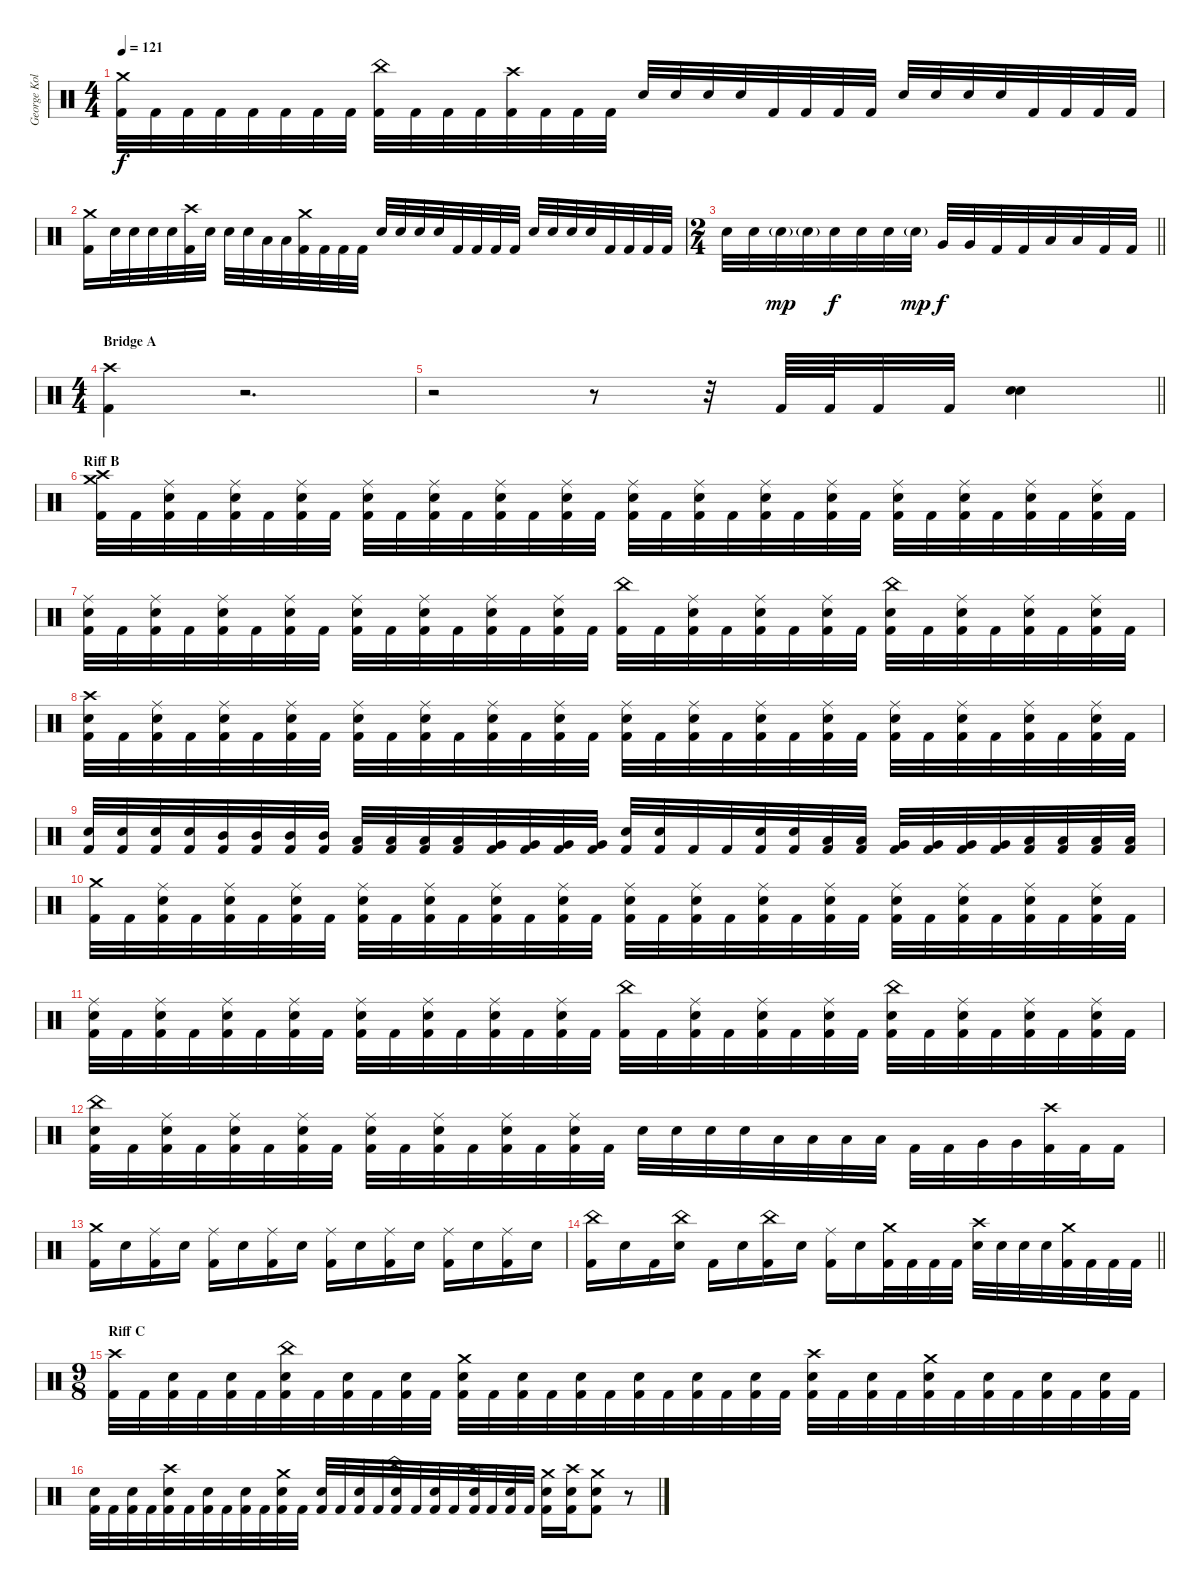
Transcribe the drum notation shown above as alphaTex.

\track ("George Kollias" "George Kol") {instrument percussion}
\staff {score}
\articulation defaults
\ts (4 4)
\tempo 121
\clef neutral
\ks c
("Crash medium (hit)" "Kick (hit) 2").32{dy f} "Kick (hit) 2".32 "Kick (hit) 2".32 "Kick (hit) 2".32 "Kick (hit) 2".32 "Kick (hit) 2".32 "Kick (hit) 2".32 "Kick (hit) 2".32 ("China (hit)" "Kick (hit) 2").32 "Kick (hit) 2".32 "Kick (hit) 2".32 "Kick (hit) 2".32 ("Crash high (hit)" "Kick (hit) 2").32 "Kick (hit) 2".32 "Kick (hit) 2".32 "Kick (hit) 2".32 "Electric Snare (hit)".32 "Electric Snare (hit)".32 "Electric Snare (hit)".32 "Electric Snare (hit)".32 "Kick (hit) 2".32 "Kick (hit) 2".32 "Kick (hit) 2".32 "Kick (hit) 2".32 "Electric Snare (hit)".32 "Electric Snare (hit)".32 "Electric Snare (hit)".32 "Electric Snare (hit)".32 "Kick (hit) 2".32 "Kick (hit) 2".32 "Kick (hit) 2".32 "Kick (hit) 2".32 |
("Crash medium (hit)" "Kick (hit) 2").16 "Electric Snare (hit)".32 "Electric Snare (hit)".32 "Electric Snare (hit)".32 "Electric Snare (hit)".32 ("Crash high (hit)" "Kick (hit) 2").32 "Electric Snare (hit)".32 "Electric Snare (hit)".32 "Electric Snare (hit)".32 "Low Floor Tom (hit)".32 "Low Floor Tom (hit)".32 ("Crash medium (hit)" "Kick (hit) 2").32 "Kick (hit) 2".32 "Kick (hit) 2".32 "Kick (hit) 2".32 "Electric Snare (hit)".32 "Electric Snare (hit)".32 "Electric Snare (hit)".32 "Electric Snare (hit)".32 "Kick (hit) 2".32 "Kick (hit) 2".32 "Kick (hit) 2".32 "Kick (hit) 2".32 "Electric Snare (hit)".32 "Electric Snare (hit)".32 "Electric Snare (hit)".32 "Electric Snare (hit)".32 "Kick (hit) 2".32 "Kick (hit) 2".32 "Kick (hit) 2".32 "Kick (hit) 2".32 |
\ts (2 4)
\barLineRight lightlight "Electric Snare (hit)".32 "Electric Snare (hit)".32 "Electric Snare (hit)"{g}.32{dy mp} "Electric Snare (hit)"{g}.32 "Electric Snare (hit)".32{dy f} "Electric Snare (hit)".32 "Electric Snare (hit)".32 "Electric Snare (hit)"{g}.32{dy mp} "Very Low Tom (hit)".32{dy f} "Very Low Tom (hit)".32 "Kick (hit) 2".32 "Kick (hit) 2".32 "Low Floor Tom (hit)".32 "Low Floor Tom (hit)".32 "Kick (hit) 2".32 "Kick (hit) 2".32
|
\ts (4 4)
\section ("" "Bridge A")
("Crash high (hit)" "Kick (hit) 2").4 r.2{d} |
\barLineRight lightlight
r.2 r.8 r.32 "Kick (hit) 2".64 "Kick (hit) 2".64 "Kick (hit) 2".32 "Kick (hit) 2".32 ("Electric Snare (hit)" "Electric Snare (hit)").4 |
\section ("" "Riff B")
("Crash medium (hit)" "Crash high (hit)" "Kick (hit) 2").32 "Kick (hit) 2".32 ("Ride (middle)" "Electric Snare (hit)" "Kick (hit) 2").32 "Kick (hit) 2".32 ("Ride (middle)" "Electric Snare (hit)" "Kick (hit) 2").32 "Kick (hit) 2".32 ("Ride (middle)" "Electric Snare (hit)" "Kick (hit) 2").32 "Kick (hit) 2".32 ("Ride (middle)" "Electric Snare (hit)" "Kick (hit) 2").32 "Kick (hit) 2".32 ("Ride (middle)" "Electric Snare (hit)" "Kick (hit) 2").32 "Kick (hit) 2".32 ("Ride (middle)" "Electric Snare (hit)" "Kick (hit) 2").32 "Kick (hit) 2".32 ("Ride (middle)" "Electric Snare (hit)" "Kick (hit) 2").32 "Kick (hit) 2".32 ("Ride (middle)" "Electric Snare (hit)" "Kick (hit) 2").32 "Kick (hit) 2".32 ("Ride (middle)" "Electric Snare (hit)" "Kick (hit) 2").32 "Kick (hit) 2".32 ("Ride (middle)" "Electric Snare (hit)" "Kick (hit) 2").32 "Kick (hit) 2".32 ("Ride (middle)" "Electric Snare (hit)" "Kick (hit) 2").32 "Kick (hit) 2".32 ("Ride (middle)" "Electric Snare (hit)" "Kick (hit) 2").32 "Kick (hit) 2".32 ("Ride (middle)" "Electric Snare (hit)" "Kick (hit) 2").32 "Kick (hit) 2".32 ("Ride (middle)" "Electric Snare (hit)" "Kick (hit) 2").32 "Kick (hit) 2".32 ("Ride (middle)" "Electric Snare (hit)" "Kick (hit) 2").32 "Kick (hit) 2".32 |
("Ride (middle)" "Electric Snare (hit)" "Kick (hit) 2").32 "Kick (hit) 2".32 ("Ride (middle)" "Electric Snare (hit)" "Kick (hit) 2").32 "Kick (hit) 2".32 ("Ride (middle)" "Electric Snare (hit)" "Kick (hit) 2").32 "Kick (hit) 2".32 ("Ride (middle)" "Electric Snare (hit)" "Kick (hit) 2").32 "Kick (hit) 2".32 ("Ride (middle)" "Electric Snare (hit)" "Kick (hit) 2").32 "Kick (hit) 2".32 ("Ride (middle)" "Electric Snare (hit)" "Kick (hit) 2").32 "Kick (hit) 2".32 ("Ride (middle)" "Electric Snare (hit)" "Kick (hit) 2").32 "Kick (hit) 2".32 ("Ride (middle)" "Electric Snare (hit)" "Kick (hit) 2").32 "Kick (hit) 2".32 ("China (hit)" "Kick (hit) 2").32 "Kick (hit) 2".32 ("Ride (middle)" "Electric Snare (hit)" "Kick (hit) 2").32 "Kick (hit) 2".32 ("Ride (middle)" "Electric Snare (hit)" "Kick (hit) 2").32 "Kick (hit) 2".32 ("Ride (middle)" "Electric Snare (hit)" "Kick (hit) 2").32 "Kick (hit) 2".32 ("China (hit)" "Electric Snare (hit)" "Kick (hit) 2").32 "Kick (hit) 2".32 ("Ride (middle)" "Electric Snare (hit)" "Kick (hit) 2").32 "Kick (hit) 2".32 ("Ride (middle)" "Electric Snare (hit)" "Kick (hit) 2").32 "Kick (hit) 2".32 ("Ride (middle)" "Electric Snare (hit)" "Kick (hit) 2").32 "Kick (hit) 2".32 |
("Crash high (hit)" "Electric Snare (hit)" "Kick (hit) 2").32 "Kick (hit) 2".32 ("Ride (middle)" "Electric Snare (hit)" "Kick (hit) 2").32 "Kick (hit) 2".32 ("Ride (middle)" "Electric Snare (hit)" "Kick (hit) 2").32 "Kick (hit) 2".32 ("Ride (middle)" "Electric Snare (hit)" "Kick (hit) 2").32 "Kick (hit) 2".32 ("Ride (middle)" "Electric Snare (hit)" "Kick (hit) 2").32 "Kick (hit) 2".32 ("Ride (middle)" "Electric Snare (hit)" "Kick (hit) 2").32 "Kick (hit) 2".32 ("Ride (middle)" "Electric Snare (hit)" "Kick (hit) 2").32 "Kick (hit) 2".32 ("Ride (middle)" "Electric Snare (hit)" "Kick (hit) 2").32 "Kick (hit) 2".32 ("Ride (middle)" "Electric Snare (hit)" "Kick (hit) 2").32 "Kick (hit) 2".32 ("Ride (middle)" "Electric Snare (hit)" "Kick (hit) 2").32 "Kick (hit) 2".32 ("Ride (middle)" "Electric Snare (hit)" "Kick (hit) 2").32 "Kick (hit) 2".32 ("Ride (middle)" "Electric Snare (hit)" "Kick (hit) 2").32 "Kick (hit) 2".32 ("Ride (middle)" "Electric Snare (hit)" "Kick (hit) 2").32 "Kick (hit) 2".32 ("Ride (middle)" "Electric Snare (hit)" "Kick (hit) 2").32 "Kick (hit) 2".32 ("Ride (middle)" "Electric Snare (hit)" "Kick (hit) 2").32 "Kick (hit) 2".32 ("Ride (middle)" "Electric Snare (hit)" "Kick (hit) 2").32 "Kick (hit) 2".32 |
("Electric Snare (hit)" "Kick (hit) 2").32 ("Electric Snare (hit)" "Kick (hit) 2").32 ("Electric Snare (hit)" "Kick (hit) 2").32 ("Electric Snare (hit)" "Kick (hit) 2").32 ("Mid Tom (hit)" "Kick (hit) 2").32 ("Mid Tom (hit)" "Kick (hit) 2").32 ("Mid Tom (hit)" "Kick (hit) 2").32 ("Mid Tom (hit)" "Kick (hit) 2").32 ("Low Tom (hit)" "Kick (hit) 2").32 ("Low Tom (hit)" "Kick (hit) 2").32 ("Low Tom (hit)" "Kick (hit) 2").32 ("Low Tom (hit)" "Kick (hit) 2").32 ("Very Low Tom (hit)" "Kick (hit) 2").32 ("Very Low Tom (hit)" "Kick (hit) 2").32 ("Very Low Tom (hit)" "Kick (hit) 2").32 ("Very Low Tom (hit)" "Kick (hit) 2").32 ("Electric Snare (hit)" "Kick (hit) 2").32 ("Electric Snare (hit)" "Kick (hit) 2").32 "Kick (hit) 2".32 "Kick (hit) 2".32 ("Electric Snare (hit)" "Kick (hit) 2").32 ("Electric Snare (hit)" "Kick (hit) 2").32 ("Low Tom (hit)" "Kick (hit) 2").32 ("Low Tom (hit)" "Kick (hit) 2").32 ("Very Low Tom (hit)" "Kick (hit) 2").32 ("Very Low Tom (hit)" "Kick (hit) 2").32 ("Very Low Tom (hit)" "Kick (hit) 2").32 ("Very Low Tom (hit)" "Kick (hit) 2").32 ("Low Floor Tom (hit)" "Kick (hit) 2").32 ("Low Floor Tom (hit)" "Kick (hit) 2").32 ("Low Floor Tom (hit)" "Kick (hit) 2").32 ("Low Floor Tom (hit)" "Kick (hit) 2").32 |
("Crash medium (hit)" "Kick (hit) 2").32 "Kick (hit) 2".32 ("Ride (middle)" "Electric Snare (hit)" "Kick (hit) 2").32 "Kick (hit) 2".32 ("Ride (middle)" "Electric Snare (hit)" "Kick (hit) 2").32 "Kick (hit) 2".32 ("Ride (middle)" "Electric Snare (hit)" "Kick (hit) 2").32 "Kick (hit) 2".32 ("Ride (middle)" "Electric Snare (hit)" "Kick (hit) 2").32 "Kick (hit) 2".32 ("Ride (middle)" "Electric Snare (hit)" "Kick (hit) 2").32 "Kick (hit) 2".32 ("Ride (middle)" "Electric Snare (hit)" "Kick (hit) 2").32 "Kick (hit) 2".32 ("Ride (middle)" "Electric Snare (hit)" "Kick (hit) 2").32 "Kick (hit) 2".32 ("Ride (middle)" "Electric Snare (hit)" "Kick (hit) 2").32 "Kick (hit) 2".32 ("Ride (middle)" "Electric Snare (hit)" "Kick (hit) 2").32 "Kick (hit) 2".32 ("Ride (middle)" "Electric Snare (hit)" "Kick (hit) 2").32 "Kick (hit) 2".32 ("Ride (middle)" "Electric Snare (hit)" "Kick (hit) 2").32 "Kick (hit) 2".32 ("Ride (middle)" "Electric Snare (hit)" "Kick (hit) 2").32 "Kick (hit) 2".32 ("Ride (middle)" "Electric Snare (hit)" "Kick (hit) 2").32 "Kick (hit) 2".32 ("Ride (middle)" "Electric Snare (hit)" "Kick (hit) 2").32 "Kick (hit) 2".32 ("Ride (middle)" "Electric Snare (hit)" "Kick (hit) 2").32 "Kick (hit) 2".32 |
("Ride (middle)" "Electric Snare (hit)" "Kick (hit) 2").32 "Kick (hit) 2".32 ("Ride (middle)" "Electric Snare (hit)" "Kick (hit) 2").32 "Kick (hit) 2".32 ("Ride (middle)" "Electric Snare (hit)" "Kick (hit) 2").32 "Kick (hit) 2".32 ("Ride (middle)" "Electric Snare (hit)" "Kick (hit) 2").32 "Kick (hit) 2".32 ("Ride (middle)" "Electric Snare (hit)" "Kick (hit) 2").32 "Kick (hit) 2".32 ("Ride (middle)" "Electric Snare (hit)" "Kick (hit) 2").32 "Kick (hit) 2".32 ("Ride (middle)" "Electric Snare (hit)" "Kick (hit) 2").32 "Kick (hit) 2".32 ("Ride (middle)" "Electric Snare (hit)" "Kick (hit) 2").32 "Kick (hit) 2".32 ("China (hit)" "Kick (hit) 2").32 "Kick (hit) 2".32 ("Ride (middle)" "Electric Snare (hit)" "Kick (hit) 2").32 "Kick (hit) 2".32 ("Ride (middle)" "Electric Snare (hit)" "Kick (hit) 2").32 "Kick (hit) 2".32 ("Ride (middle)" "Electric Snare (hit)" "Kick (hit) 2").32 "Kick (hit) 2".32 ("China (hit)" "Electric Snare (hit)" "Kick (hit) 2").32 "Kick (hit) 2".32 ("Ride (middle)" "Electric Snare (hit)" "Kick (hit) 2").32 "Kick (hit) 2".32 ("Ride (middle)" "Electric Snare (hit)" "Kick (hit) 2").32 "Kick (hit) 2".32 ("Ride (middle)" "Electric Snare (hit)" "Kick (hit) 2").32 "Kick (hit) 2".32 |
("China (hit)" "Electric Snare (hit)" "Kick (hit) 2").32 "Kick (hit) 2".32 ("Ride (middle)" "Electric Snare (hit)" "Kick (hit) 2").32 "Kick (hit) 2".32 ("Ride (middle)" "Electric Snare (hit)" "Kick (hit) 2").32 "Kick (hit) 2".32 ("Ride (middle)" "Electric Snare (hit)" "Kick (hit) 2").32 "Kick (hit) 2".32 ("Ride (middle)" "Electric Snare (hit)" "Kick (hit) 2").32 "Kick (hit) 2".32 ("Ride (middle)" "Electric Snare (hit)" "Kick (hit) 2").32 "Kick (hit) 2".32 ("Ride (middle)" "Electric Snare (hit)" "Kick (hit) 2").32 "Kick (hit) 2".32 ("Ride (middle)" "Electric Snare (hit)" "Kick (hit) 2").32 "Kick (hit) 2".32 "Electric Snare (hit)".32 "Electric Snare (hit)".32 "Electric Snare (hit)".32 "Electric Snare (hit)".32 "Low Tom (hit)".32 "Low Tom (hit)".32 "Low Tom (hit)".32 "Low Tom (hit)".32 "Kick (hit) 2".32 "Kick (hit) 2".32 "Very Low Tom (hit)".32 "Very Low Tom (hit)".32 ("Crash high (hit)" "Kick (hit) 2").32 "Kick (hit) 2".32 "Kick (hit) 2".16 |
("Crash medium (hit)" "Kick (hit) 2").16 "Electric Snare (hit)".16 ("Ride (middle)" "Kick (hit) 2").16 "Electric Snare (hit)".16 ("Ride (middle)" "Kick (hit) 2").16 "Electric Snare (hit)".16 ("Ride (middle)" "Kick (hit) 2").16 "Electric Snare (hit)".16 ("Ride (middle)" "Kick (hit) 2").16 "Electric Snare (hit)".16 ("Ride (middle)" "Kick (hit) 2").16 "Electric Snare (hit)".16 ("Ride (middle)" "Kick (hit) 2").16 "Electric Snare (hit)".16 ("Ride (middle)" "Kick (hit) 2").16 "Electric Snare (hit)".16 |
\barLineRight lightlight
("China (hit)" "Kick (hit) 2").16 "Electric Snare (hit)".16 "Kick (hit) 2".16 ("China (hit)" "Electric Snare (hit)").16 "Kick (hit) 2".16 "Electric Snare (hit)".16 ("China (hit)" "Kick (hit) 2").16 "Electric Snare (hit)".16 ("Ride (middle)" "Kick (hit) 2").16 "Electric Snare (hit)".16 ("Crash medium (hit)" "Kick (hit) 2").32 "Kick (hit) 2".32 "Kick (hit) 2".32 "Kick (hit) 2".32 ("Crash high (hit)" "Electric Snare (hit)").32 "Electric Snare (hit)".32 "Electric Snare (hit)".32 "Electric Snare (hit)".32 ("Crash medium (hit)" "Kick (hit) 2").32 "Kick (hit) 2".32 "Kick (hit) 2".32 "Kick (hit) 2".32 |
\ts (9 8)
\section ("" "Riff C")
("Crash high (hit)" "Kick (hit) 2").32 "Kick (hit) 2".32 ("Electric Snare (hit)" "Kick (hit) 2").32 "Kick (hit) 2".32 ("Electric Snare (hit)" "Kick (hit) 2").32 "Kick (hit) 2".32 ("China (hit)" "Electric Snare (hit)" "Kick (hit) 2").32 "Kick (hit) 2".32 ("Electric Snare (hit)" "Kick (hit) 2").32 "Kick (hit) 2".32 ("Electric Snare (hit)" "Kick (hit) 2").32 "Kick (hit) 2".32 ("Crash medium (hit)" "Electric Snare (hit)" "Kick (hit) 2").32 "Kick (hit) 2".32 ("Electric Snare (hit)" "Kick (hit) 2").32 "Kick (hit) 2".32 ("Electric Snare (hit)" "Kick (hit) 2").32 "Kick (hit) 2".32 ("Electric Snare (hit)" "Kick (hit) 2").32 "Kick (hit) 2".32 ("Electric Snare (hit)" "Kick (hit) 2").32 "Kick (hit) 2".32 ("Electric Snare (hit)" "Kick (hit) 2").32 "Kick (hit) 2".32 ("Crash high (hit)" "Electric Snare (hit)" "Kick (hit) 2").32 "Kick (hit) 2".32 ("Electric Snare (hit)" "Kick (hit) 2").32 "Kick (hit) 2".32 ("Crash medium (hit)" "Electric Snare (hit)" "Kick (hit) 2").32 "Kick (hit) 2".32 ("Electric Snare (hit)" "Kick (hit) 2").32 "Kick (hit) 2".32 ("Electric Snare (hit)" "Kick (hit) 2").32 "Kick (hit) 2".32 ("Electric Snare (hit)" "Kick (hit) 2").32 "Kick (hit) 2".32 |
("Electric Snare (hit)" "Kick (hit) 2").32 "Kick (hit) 2".32 ("Electric Snare (hit)" "Kick (hit) 2").32 "Kick (hit) 2".32 ("Crash high (hit)" "Electric Snare (hit)" "Kick (hit) 2").32 "Kick (hit) 2".32 ("Electric Snare (hit)" "Kick (hit) 2").32 "Kick (hit) 2".32 ("Electric Snare (hit)" "Kick (hit) 2").32 "Kick (hit) 2".32 ("Crash medium (hit)" "Electric Snare (hit)" "Kick (hit) 2").32 "Kick (hit) 2".32 ("Electric Snare (hit)" "Kick (hit) 2").32 "Kick (hit) 2".32 ("Electric Snare (hit)" "Kick (hit) 2").32 "Kick (hit) 2".32 ("China (hit)" "Electric Snare (hit)" "Kick (hit) 2").32 "Kick (hit) 2".32 ("Electric Snare (hit)" "Kick (hit) 2").32 "Kick (hit) 2".32 ("Crash high (hit)" "Electric Snare (hit)" "Kick (hit) 2").32 "Kick (hit) 2".32 ("Electric Snare (hit)" "Kick (hit) 2").32 "Kick (hit) 2".32 ("Crash medium (hit)" "Electric Snare (hit)" "Kick (hit) 2").16 ("Crash high (hit)" "Electric Snare (hit)" "Kick (hit) 2").16 ("Crash medium (hit)" "Electric Snare (hit)" "Kick (hit) 2").8 r.8
